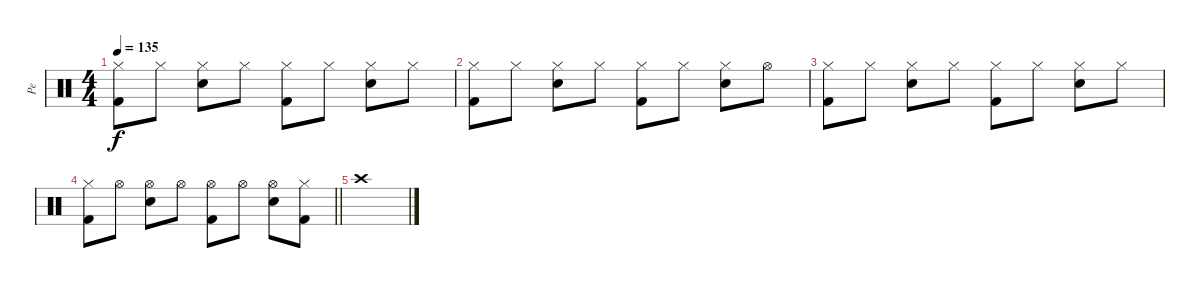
\track ("Pe" "Pe") {instrument percussion}
\staff {score}
\articulation defaults
\ts (4 4)
\tempo 135
\clef neutral
\ks c
("Hi-Hat (closed)" "Kick (hit) 2").8{dy f} "Hi-Hat (closed)".8 ("Hi-Hat (closed)" "Electric Snare (hit)").8 "Hi-Hat (closed)".8 ("Hi-Hat (closed)" "Kick (hit) 2").8 "Hi-Hat (closed)".8 ("Hi-Hat (closed)" "Electric Snare (hit)").8 "Hi-Hat (closed)".8 |
("Hi-Hat (closed)" "Kick (hit) 2").8 "Hi-Hat (closed)".8 ("Hi-Hat (closed)" "Electric Snare (hit)").8 "Hi-Hat (closed)".8 ("Hi-Hat (closed)" "Kick (hit) 2").8 "Hi-Hat (closed)".8 ("Hi-Hat (closed)" "Electric Snare (hit)").8 "Hi-Hat (open)".8 |
("Hi-Hat (closed)" "Kick (hit) 2").8 "Hi-Hat (closed)".8 ("Hi-Hat (closed)" "Electric Snare (hit)").8 "Hi-Hat (closed)".8 ("Hi-Hat (closed)" "Kick (hit) 2").8 "Hi-Hat (closed)".8 ("Hi-Hat (closed)" "Electric Snare (hit)").8 "Hi-Hat (closed)".8 |
\barLineRight lightlight
("Hi-Hat (closed)" "Kick (hit) 2").8 "Hi-Hat (open)".8 ("Hi-Hat (open)" "Electric Snare (hit)").8 "Hi-Hat (open)".8 ("Hi-Hat (open)" "Kick (hit) 2").8 "Hi-Hat (open)".8 ("Hi-Hat (open)" "Electric Snare (hit)").8 ("Hi-Hat (closed)" "Kick (hit) 2").8 |
"Crash high (hit)".1
